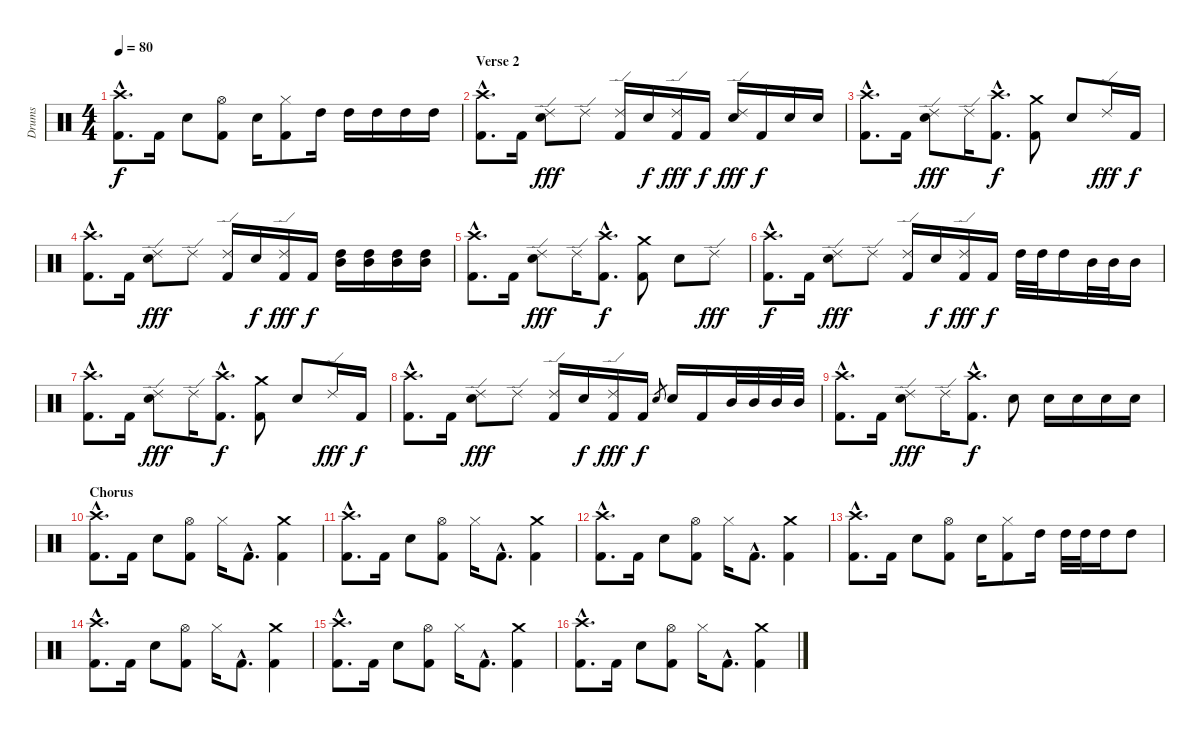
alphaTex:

\track ("Drums" "Drums") {instrument percussion}
\staff {score}
\articulation defaults
\ts (4 4)
\tempo 80
\clef neutral
\ks c
("Crash high (hit)"{hac} "Kick (hit) 2"{hac}).8{d dy f} "Kick (hit) 2".16 "Snare (hit) 2".8 ("Hi-Hat (open)" "Kick (hit) 2").8 "Snare (hit) 2".16 ("Hi-Hat (closed)" "Kick (hit) 2").8 "High Tom (hit)".16 "High Tom (hit)".16 "High Tom (hit)".16 "High Tom (hit)".16 "High Tom (hit)".16 |
\section ("" "Verse 2")
("Crash high (hit)"{hac} "Kick (hit) 2"{hac}).8{d} "Kick (hit) 2".16 ("Ride (edge) 2" "Snare (hit) 2").8{dy fff} "Ride (edge) 2".8 ("Ride (edge) 2" "Kick (hit) 2").16 "Snare (hit) 2".16{dy f} ("Ride (edge) 2" "Kick (hit) 2").16{dy fff} "Kick (hit) 2".16{dy f} ("Ride (edge) 2" "Snare (hit) 2").16{dy fff} "Kick (hit) 2".16{dy f} "Snare (hit) 2".16 "Snare (hit) 2".16 |
("Crash high (hit)"{hac} "Kick (hit) 2"{hac}).8{d} "Kick (hit) 2".16 ("Ride (edge) 2" "Snare (hit) 2").8{dy fff} "Ride (edge) 2".16 ("Crash high (hit)"{hac} "Kick (hit) 2"{hac}).8{d dy f} ("Crash medium (hit)" "Kick (hit) 2").8 "Snare (hit) 2".8 "Ride (edge) 2".16{dy fff} "Kick (hit) 2".16{dy f} |
("Crash high (hit)"{hac} "Kick (hit) 2"{hac}).8{d} "Kick (hit) 2".16 ("Ride (edge) 2" "Snare (hit) 2").8{dy fff} "Ride (edge) 2".8 ("Ride (edge) 2" "Kick (hit) 2").16 "Snare (hit) 2".16{dy f} ("Ride (edge) 2" "Kick (hit) 2").16{dy fff} "Kick (hit) 2".16{dy f} ("High Tom (hit)" "Mid Tom (hit)").16 ("High Tom (hit)" "Mid Tom (hit)").16 ("High Tom (hit)" "Mid Tom (hit)").16 ("High Tom (hit)" "Mid Tom (hit)").16 |
("Crash high (hit)"{hac} "Kick (hit) 2"{hac}).8{d} "Kick (hit) 2".16 ("Ride (edge) 2" "Snare (hit) 2").8{dy fff} "Ride (edge) 2".16 ("Crash high (hit)"{hac} "Kick (hit) 2"{hac}).8{d dy f} ("Crash medium (hit)" "Kick (hit) 2").8 "Snare (hit) 2".8 "Ride (edge) 2".8{dy fff} |
("Crash high (hit)"{hac} "Kick (hit) 2"{hac}).8{d dy f} "Kick (hit) 2".16 ("Ride (edge) 2" "Snare (hit) 2").8{dy fff} "Ride (edge) 2".8 ("Ride (edge) 2" "Kick (hit) 2").16 "Snare (hit) 2".16{dy f} ("Ride (edge) 2" "Kick (hit) 2").16{dy fff} "Kick (hit) 2".16{dy f} "High Tom (hit)".32 "High Tom (hit)".32 "High Tom (hit)".16 "Mid Tom (hit)".32 "Mid Tom (hit)".32 "Mid Tom (hit)".16 |
("Crash high (hit)"{hac} "Kick (hit) 2"{hac}).8{d} "Kick (hit) 2".16 ("Ride (edge) 2" "Snare (hit) 2").8{dy fff} "Ride (edge) 2".16 ("Crash high (hit)"{hac} "Kick (hit) 2"{hac}).8{d dy f} ("Crash medium (hit)" "Kick (hit) 2").8 "Snare (hit) 2".8 "Ride (edge) 2".16{dy fff} "Kick (hit) 2".16{dy f} |
("Crash high (hit)"{hac} "Kick (hit) 2"{hac}).8{d} "Kick (hit) 2".16 ("Ride (edge) 2" "Snare (hit) 2").8{dy fff} "Ride (edge) 2".8 ("Ride (edge) 2" "Kick (hit) 2").16 "Snare (hit) 2".16{dy f} ("Ride (edge) 2" "Kick (hit) 2").16{dy fff} "Kick (hit) 2".16{dy f} "Snare (hit) 2".8{gr} "Snare (hit) 2".16 "Kick (hit) 2".16 "Mid Tom (hit)".32 "Mid Tom (hit)".32 "Mid Tom (hit)".32 "Mid Tom (hit)".32 |
("Crash high (hit)"{hac} "Kick (hit) 2"{hac}).8{d} "Kick (hit) 2".16 ("Ride (edge) 2" "Snare (hit) 2").8{dy fff} "Ride (edge) 2".16 ("Crash high (hit)"{hac} "Kick (hit) 2"{hac}).8{d dy f} "Snare (hit) 2".8 "Snare (hit) 2".16 "Snare (hit) 2".16 "Snare (hit) 2".16 "Snare (hit) 2".16 |
\section ("" "Chorus")
("Crash high (hit)"{hac} "Kick (hit) 2"{hac}).8{d} "Kick (hit) 2".16 "Snare (hit) 2".8 ("Hi-Hat (open)" "Kick (hit) 2").8 "Hi-Hat (closed)".16 "Kick (hit) 2"{hac}.8{d} ("Crash medium (hit)" "Kick (hit) 2").4 |
("Crash high (hit)"{hac} "Kick (hit) 2"{hac}).8{d} "Kick (hit) 2".16 "Snare (hit) 2".8 ("Hi-Hat (open)" "Kick (hit) 2").8 "Hi-Hat (closed)".16 "Kick (hit) 2"{hac}.8{d} ("Crash medium (hit)" "Kick (hit) 2").4 |
("Crash high (hit)"{hac} "Kick (hit) 2"{hac}).8{d} "Kick (hit) 2".16 "Snare (hit) 2".8 ("Hi-Hat (open)" "Kick (hit) 2").8 "Hi-Hat (closed)".16 "Kick (hit) 2"{hac}.8{d} ("Crash medium (hit)" "Kick (hit) 2").4 |
("Crash high (hit)"{hac} "Kick (hit) 2"{hac}).8{d} "Kick (hit) 2".16 "Snare (hit) 2".8 ("Hi-Hat (open)" "Kick (hit) 2").8 "Snare (hit) 2".16 ("Hi-Hat (closed)" "Kick (hit) 2").8 "High Tom (hit)".16 "High Tom (hit)".32 "High Tom (hit)".32 "High Tom (hit)".16 "High Tom (hit)".8 |
("Crash high (hit)"{hac} "Kick (hit) 2"{hac}).8{d} "Kick (hit) 2".16 "Snare (hit) 2".8 ("Hi-Hat (open)" "Kick (hit) 2").8 "Hi-Hat (closed)".16 "Kick (hit) 2"{hac}.8{d} ("Crash medium (hit)" "Kick (hit) 2").4 |
("Crash high (hit)"{hac} "Kick (hit) 2"{hac}).8{d} "Kick (hit) 2".16 "Snare (hit) 2".8 ("Hi-Hat (open)" "Kick (hit) 2").8 "Hi-Hat (closed)".16 "Kick (hit) 2"{hac}.8{d} ("Crash medium (hit)" "Kick (hit) 2").4 |
("Crash high (hit)"{hac} "Kick (hit) 2"{hac}).8{d} "Kick (hit) 2".16 "Snare (hit) 2".8 ("Hi-Hat (open)" "Kick (hit) 2").8 "Hi-Hat (closed)".16 "Kick (hit) 2"{hac}.8{d} ("Crash medium (hit)" "Kick (hit) 2").4
